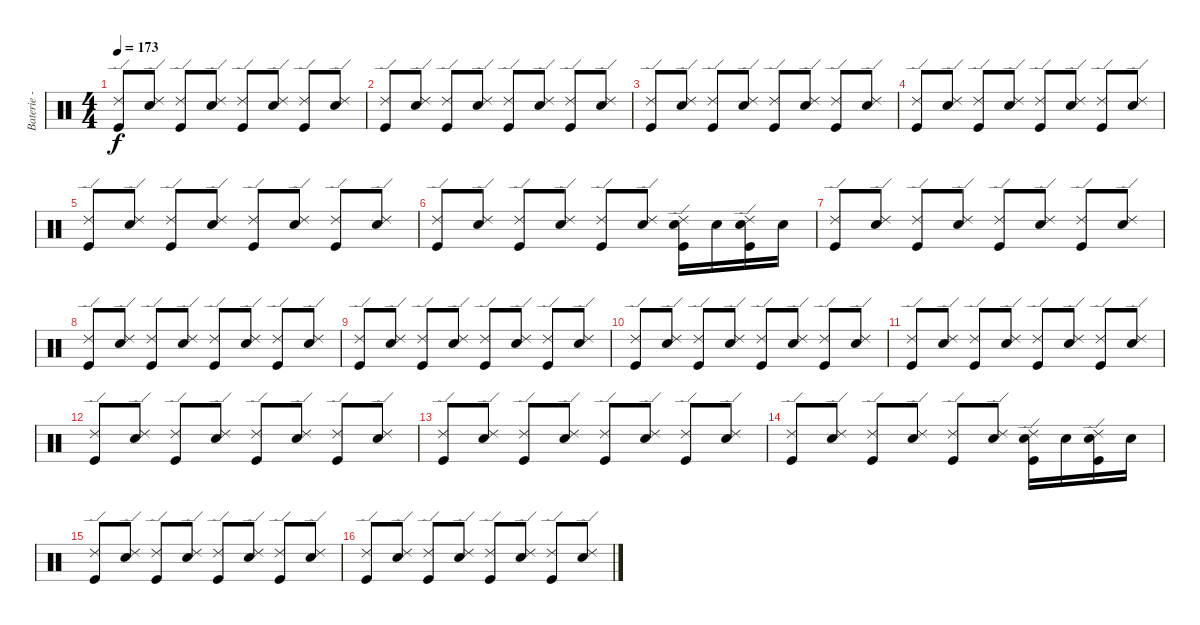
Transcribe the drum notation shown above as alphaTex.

\track ("Baterie - Guillaume" "Baterie - ") {instrument percussion}
\staff {score}
\articulation defaults
\ts (4 4)
\tempo 173
\clef neutral
\ks c
("Ride (edge) 2" "Kick (hit)").8{dy f} ("Ride (edge) 2" "Snare (hit) 2").8 ("Ride (edge) 2" "Kick (hit)").8 ("Ride (edge) 2" "Snare (hit) 2").8 ("Ride (edge) 2" "Kick (hit)").8 ("Ride (edge) 2" "Snare (hit) 2").8 ("Ride (edge) 2" "Kick (hit)").8 ("Ride (edge) 2" "Snare (hit) 2").8 |
("Ride (edge) 2" "Kick (hit)").8 ("Ride (edge) 2" "Snare (hit) 2").8 ("Ride (edge) 2" "Kick (hit)").8 ("Ride (edge) 2" "Snare (hit) 2").8 ("Ride (edge) 2" "Kick (hit)").8 ("Ride (edge) 2" "Snare (hit) 2").8 ("Ride (edge) 2" "Kick (hit)").8 ("Ride (edge) 2" "Snare (hit) 2").8 |
("Ride (edge) 2" "Kick (hit)").8 ("Ride (edge) 2" "Snare (hit) 2").8 ("Ride (edge) 2" "Kick (hit)").8 ("Ride (edge) 2" "Snare (hit) 2").8 ("Ride (edge) 2" "Kick (hit)").8 ("Ride (edge) 2" "Snare (hit) 2").8 ("Ride (edge) 2" "Kick (hit)").8 ("Ride (edge) 2" "Snare (hit) 2").8 |
("Ride (edge) 2" "Kick (hit)").8 ("Ride (edge) 2" "Snare (hit) 2").8 ("Ride (edge) 2" "Kick (hit)").8 ("Ride (edge) 2" "Snare (hit) 2").8 ("Ride (edge) 2" "Kick (hit)").8 ("Ride (edge) 2" "Snare (hit) 2").8 ("Ride (edge) 2" "Kick (hit)").8 ("Ride (edge) 2" "Snare (hit) 2").8 |
("Ride (edge) 2" "Kick (hit)").8 ("Ride (edge) 2" "Snare (hit) 2").8 ("Ride (edge) 2" "Kick (hit)").8 ("Ride (edge) 2" "Snare (hit) 2").8 ("Ride (edge) 2" "Kick (hit)").8 ("Ride (edge) 2" "Snare (hit) 2").8 ("Ride (edge) 2" "Kick (hit)").8 ("Ride (edge) 2" "Snare (hit) 2").8 |
("Ride (edge) 2" "Kick (hit)").8 ("Ride (edge) 2" "Snare (hit) 2").8 ("Ride (edge) 2" "Kick (hit)").8 ("Ride (edge) 2" "Snare (hit) 2").8 ("Ride (edge) 2" "Kick (hit)").8 ("Ride (edge) 2" "Snare (hit) 2").8 ("Ride (edge) 2" "Snare (hit) 2" "Kick (hit)").16 "Snare (hit) 2".16 ("Ride (edge) 2" "Snare (hit) 2" "Kick (hit)").16 "Snare (hit) 2".16 |
("Ride (edge) 2" "Kick (hit)").8 ("Ride (edge) 2" "Snare (hit) 2").8 ("Ride (edge) 2" "Kick (hit)").8 ("Ride (edge) 2" "Snare (hit) 2").8 ("Ride (edge) 2" "Kick (hit)").8 ("Ride (edge) 2" "Snare (hit) 2").8 ("Ride (edge) 2" "Kick (hit)").8 ("Ride (edge) 2" "Snare (hit) 2").8 |
("Ride (edge) 2" "Kick (hit)").8 ("Ride (edge) 2" "Snare (hit) 2").8 ("Ride (edge) 2" "Kick (hit)").8 ("Ride (edge) 2" "Snare (hit) 2").8 ("Ride (edge) 2" "Kick (hit)").8 ("Ride (edge) 2" "Snare (hit) 2").8 ("Ride (edge) 2" "Kick (hit)").8 ("Ride (edge) 2" "Snare (hit) 2").8 |
("Ride (edge) 2" "Kick (hit)").8 ("Ride (edge) 2" "Snare (hit) 2").8 ("Ride (edge) 2" "Kick (hit)").8 ("Ride (edge) 2" "Snare (hit) 2").8 ("Ride (edge) 2" "Kick (hit)").8 ("Ride (edge) 2" "Snare (hit) 2").8 ("Ride (edge) 2" "Kick (hit)").8 ("Ride (edge) 2" "Snare (hit) 2").8 |
("Ride (edge) 2" "Kick (hit)").8 ("Ride (edge) 2" "Snare (hit) 2").8 ("Ride (edge) 2" "Kick (hit)").8 ("Ride (edge) 2" "Snare (hit) 2").8 ("Ride (edge) 2" "Kick (hit)").8 ("Ride (edge) 2" "Snare (hit) 2").8 ("Ride (edge) 2" "Kick (hit)").8 ("Ride (edge) 2" "Snare (hit) 2").8 |
("Ride (edge) 2" "Kick (hit)").8 ("Ride (edge) 2" "Snare (hit) 2").8 ("Ride (edge) 2" "Kick (hit)").8 ("Ride (edge) 2" "Snare (hit) 2").8 ("Ride (edge) 2" "Kick (hit)").8 ("Ride (edge) 2" "Snare (hit) 2").8 ("Ride (edge) 2" "Kick (hit)").8 ("Ride (edge) 2" "Snare (hit) 2").8 |
("Ride (edge) 2" "Kick (hit)").8 ("Ride (edge) 2" "Snare (hit) 2").8 ("Ride (edge) 2" "Kick (hit)").8 ("Ride (edge) 2" "Snare (hit) 2").8 ("Ride (edge) 2" "Kick (hit)").8 ("Ride (edge) 2" "Snare (hit) 2").8 ("Ride (edge) 2" "Kick (hit)").8 ("Ride (edge) 2" "Snare (hit) 2").8 |
("Ride (edge) 2" "Kick (hit)").8 ("Ride (edge) 2" "Snare (hit) 2").8 ("Ride (edge) 2" "Kick (hit)").8 ("Ride (edge) 2" "Snare (hit) 2").8 ("Ride (edge) 2" "Kick (hit)").8 ("Ride (edge) 2" "Snare (hit) 2").8 ("Ride (edge) 2" "Kick (hit)").8 ("Ride (edge) 2" "Snare (hit) 2").8 |
("Ride (edge) 2" "Kick (hit)").8 ("Ride (edge) 2" "Snare (hit) 2").8 ("Ride (edge) 2" "Kick (hit)").8 ("Ride (edge) 2" "Snare (hit) 2").8 ("Ride (edge) 2" "Kick (hit)").8 ("Ride (edge) 2" "Snare (hit) 2").8 ("Ride (edge) 2" "Snare (hit) 2" "Kick (hit)").16 "Snare (hit) 2".16 ("Ride (edge) 2" "Snare (hit) 2" "Kick (hit)").16 "Snare (hit) 2".16 |
("Ride (edge) 2" "Kick (hit)").8 ("Ride (edge) 2" "Snare (hit) 2").8 ("Ride (edge) 2" "Kick (hit)").8 ("Ride (edge) 2" "Snare (hit) 2").8 ("Ride (edge) 2" "Kick (hit)").8 ("Ride (edge) 2" "Snare (hit) 2").8 ("Ride (edge) 2" "Kick (hit)").8 ("Ride (edge) 2" "Snare (hit) 2").8 |
("Ride (edge) 2" "Kick (hit)").8 ("Ride (edge) 2" "Snare (hit) 2").8 ("Ride (edge) 2" "Kick (hit)").8 ("Ride (edge) 2" "Snare (hit) 2").8 ("Ride (edge) 2" "Kick (hit)").8 ("Ride (edge) 2" "Snare (hit) 2").8 ("Ride (edge) 2" "Kick (hit)").8 ("Ride (edge) 2" "Snare (hit) 2").8
